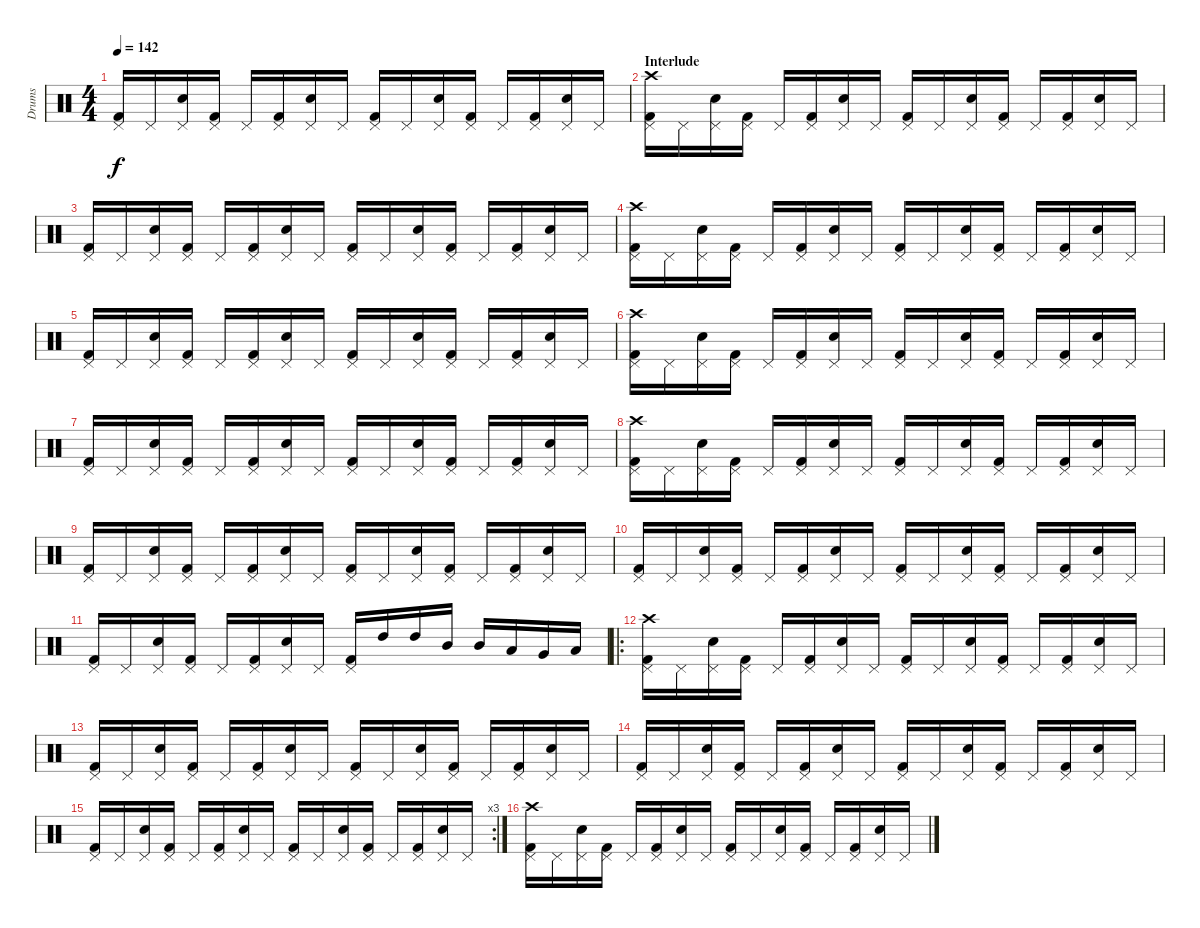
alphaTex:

\track ("Drums" "Drums") {instrument percussion}
\staff {score}
\articulation defaults
\ts (4 4)
\tempo 142
\clef neutral
\ks c
("Kick (hit) 2" "Pedal Hi-Hat (hit)").16{dy f} "Pedal Hi-Hat (hit)".16 ("Snare (hit) 2" "Pedal Hi-Hat (hit)").16 ("Kick (hit) 2" "Pedal Hi-Hat (hit)").16 "Pedal Hi-Hat (hit)".16 ("Kick (hit) 2" "Pedal Hi-Hat (hit)").16 ("Snare (hit) 2" "Pedal Hi-Hat (hit)").16 "Pedal Hi-Hat (hit)".16 ("Kick (hit) 2" "Pedal Hi-Hat (hit)").16 "Pedal Hi-Hat (hit)".16 ("Snare (hit) 2" "Pedal Hi-Hat (hit)").16 ("Kick (hit) 2" "Pedal Hi-Hat (hit)").16 "Pedal Hi-Hat (hit)".16 ("Kick (hit) 2" "Pedal Hi-Hat (hit)").16 ("Snare (hit) 2" "Pedal Hi-Hat (hit)").16 "Pedal Hi-Hat (hit)".16 |
\section ("" "Interlude")
("Kick (hit) 2" "Pedal Hi-Hat (hit)" "Crash high (hit)").16 "Pedal Hi-Hat (hit)".16 ("Snare (hit) 2" "Pedal Hi-Hat (hit)").16 ("Kick (hit) 2" "Pedal Hi-Hat (hit)").16 "Pedal Hi-Hat (hit)".16 ("Kick (hit) 2" "Pedal Hi-Hat (hit)").16 ("Snare (hit) 2" "Pedal Hi-Hat (hit)").16 "Pedal Hi-Hat (hit)".16 ("Kick (hit) 2" "Pedal Hi-Hat (hit)").16 "Pedal Hi-Hat (hit)".16 ("Snare (hit) 2" "Pedal Hi-Hat (hit)").16 ("Kick (hit) 2" "Pedal Hi-Hat (hit)").16 "Pedal Hi-Hat (hit)".16 ("Kick (hit) 2" "Pedal Hi-Hat (hit)").16 ("Snare (hit) 2" "Pedal Hi-Hat (hit)").16 "Pedal Hi-Hat (hit)".16 |
("Kick (hit) 2" "Pedal Hi-Hat (hit)").16 "Pedal Hi-Hat (hit)".16 ("Snare (hit) 2" "Pedal Hi-Hat (hit)").16 ("Kick (hit) 2" "Pedal Hi-Hat (hit)").16 "Pedal Hi-Hat (hit)".16 ("Kick (hit) 2" "Pedal Hi-Hat (hit)").16 ("Snare (hit) 2" "Pedal Hi-Hat (hit)").16 "Pedal Hi-Hat (hit)".16 ("Kick (hit) 2" "Pedal Hi-Hat (hit)").16 "Pedal Hi-Hat (hit)".16 ("Snare (hit) 2" "Pedal Hi-Hat (hit)").16 ("Kick (hit) 2" "Pedal Hi-Hat (hit)").16 "Pedal Hi-Hat (hit)".16 ("Kick (hit) 2" "Pedal Hi-Hat (hit)").16 ("Snare (hit) 2" "Pedal Hi-Hat (hit)").16 "Pedal Hi-Hat (hit)".16 |
("Kick (hit) 2" "Pedal Hi-Hat (hit)" "Crash high (hit)").16 "Pedal Hi-Hat (hit)".16 ("Snare (hit) 2" "Pedal Hi-Hat (hit)").16 ("Kick (hit) 2" "Pedal Hi-Hat (hit)").16 "Pedal Hi-Hat (hit)".16 ("Kick (hit) 2" "Pedal Hi-Hat (hit)").16 ("Snare (hit) 2" "Pedal Hi-Hat (hit)").16 "Pedal Hi-Hat (hit)".16 ("Kick (hit) 2" "Pedal Hi-Hat (hit)").16 "Pedal Hi-Hat (hit)".16 ("Snare (hit) 2" "Pedal Hi-Hat (hit)").16 ("Kick (hit) 2" "Pedal Hi-Hat (hit)").16 "Pedal Hi-Hat (hit)".16 ("Kick (hit) 2" "Pedal Hi-Hat (hit)").16 ("Snare (hit) 2" "Pedal Hi-Hat (hit)").16 "Pedal Hi-Hat (hit)".16 |
("Kick (hit) 2" "Pedal Hi-Hat (hit)").16 "Pedal Hi-Hat (hit)".16 ("Snare (hit) 2" "Pedal Hi-Hat (hit)").16 ("Kick (hit) 2" "Pedal Hi-Hat (hit)").16 "Pedal Hi-Hat (hit)".16 ("Kick (hit) 2" "Pedal Hi-Hat (hit)").16 ("Snare (hit) 2" "Pedal Hi-Hat (hit)").16 "Pedal Hi-Hat (hit)".16 ("Kick (hit) 2" "Pedal Hi-Hat (hit)").16 "Pedal Hi-Hat (hit)".16 ("Snare (hit) 2" "Pedal Hi-Hat (hit)").16 ("Kick (hit) 2" "Pedal Hi-Hat (hit)").16 "Pedal Hi-Hat (hit)".16 ("Kick (hit) 2" "Pedal Hi-Hat (hit)").16 ("Snare (hit) 2" "Pedal Hi-Hat (hit)").16 "Pedal Hi-Hat (hit)".16 |
("Kick (hit) 2" "Pedal Hi-Hat (hit)" "Crash high (hit)").16 "Pedal Hi-Hat (hit)".16 ("Snare (hit) 2" "Pedal Hi-Hat (hit)").16 ("Kick (hit) 2" "Pedal Hi-Hat (hit)").16 "Pedal Hi-Hat (hit)".16 ("Kick (hit) 2" "Pedal Hi-Hat (hit)").16 ("Snare (hit) 2" "Pedal Hi-Hat (hit)").16 "Pedal Hi-Hat (hit)".16 ("Kick (hit) 2" "Pedal Hi-Hat (hit)").16 "Pedal Hi-Hat (hit)".16 ("Snare (hit) 2" "Pedal Hi-Hat (hit)").16 ("Kick (hit) 2" "Pedal Hi-Hat (hit)").16 "Pedal Hi-Hat (hit)".16 ("Kick (hit) 2" "Pedal Hi-Hat (hit)").16 ("Snare (hit) 2" "Pedal Hi-Hat (hit)").16 "Pedal Hi-Hat (hit)".16 |
("Kick (hit) 2" "Pedal Hi-Hat (hit)").16 "Pedal Hi-Hat (hit)".16 ("Snare (hit) 2" "Pedal Hi-Hat (hit)").16 ("Kick (hit) 2" "Pedal Hi-Hat (hit)").16 "Pedal Hi-Hat (hit)".16 ("Kick (hit) 2" "Pedal Hi-Hat (hit)").16 ("Snare (hit) 2" "Pedal Hi-Hat (hit)").16 "Pedal Hi-Hat (hit)".16 ("Kick (hit) 2" "Pedal Hi-Hat (hit)").16 "Pedal Hi-Hat (hit)".16 ("Snare (hit) 2" "Pedal Hi-Hat (hit)").16 ("Kick (hit) 2" "Pedal Hi-Hat (hit)").16 "Pedal Hi-Hat (hit)".16 ("Kick (hit) 2" "Pedal Hi-Hat (hit)").16 ("Snare (hit) 2" "Pedal Hi-Hat (hit)").16 "Pedal Hi-Hat (hit)".16 |
("Kick (hit) 2" "Pedal Hi-Hat (hit)" "Crash high (hit)").16 "Pedal Hi-Hat (hit)".16 ("Snare (hit) 2" "Pedal Hi-Hat (hit)").16 ("Kick (hit) 2" "Pedal Hi-Hat (hit)").16 "Pedal Hi-Hat (hit)".16 ("Kick (hit) 2" "Pedal Hi-Hat (hit)").16 ("Snare (hit) 2" "Pedal Hi-Hat (hit)").16 "Pedal Hi-Hat (hit)".16 ("Kick (hit) 2" "Pedal Hi-Hat (hit)").16 "Pedal Hi-Hat (hit)".16 ("Snare (hit) 2" "Pedal Hi-Hat (hit)").16 ("Kick (hit) 2" "Pedal Hi-Hat (hit)").16 "Pedal Hi-Hat (hit)".16 ("Kick (hit) 2" "Pedal Hi-Hat (hit)").16 ("Snare (hit) 2" "Pedal Hi-Hat (hit)").16 "Pedal Hi-Hat (hit)".16 |
("Kick (hit) 2" "Pedal Hi-Hat (hit)").16 "Pedal Hi-Hat (hit)".16 ("Snare (hit) 2" "Pedal Hi-Hat (hit)").16 ("Kick (hit) 2" "Pedal Hi-Hat (hit)").16 "Pedal Hi-Hat (hit)".16 ("Kick (hit) 2" "Pedal Hi-Hat (hit)").16 ("Snare (hit) 2" "Pedal Hi-Hat (hit)").16 "Pedal Hi-Hat (hit)".16 ("Kick (hit) 2" "Pedal Hi-Hat (hit)").16 "Pedal Hi-Hat (hit)".16 ("Snare (hit) 2" "Pedal Hi-Hat (hit)").16 ("Kick (hit) 2" "Pedal Hi-Hat (hit)").16 "Pedal Hi-Hat (hit)".16 ("Kick (hit) 2" "Pedal Hi-Hat (hit)").16 ("Snare (hit) 2" "Pedal Hi-Hat (hit)").16 "Pedal Hi-Hat (hit)".16 |
("Kick (hit) 2" "Pedal Hi-Hat (hit)").16 "Pedal Hi-Hat (hit)".16 ("Snare (hit) 2" "Pedal Hi-Hat (hit)").16 ("Kick (hit) 2" "Pedal Hi-Hat (hit)").16 "Pedal Hi-Hat (hit)".16 ("Kick (hit) 2" "Pedal Hi-Hat (hit)").16 ("Snare (hit) 2" "Pedal Hi-Hat (hit)").16 "Pedal Hi-Hat (hit)".16 ("Kick (hit) 2" "Pedal Hi-Hat (hit)").16 "Pedal Hi-Hat (hit)".16 ("Snare (hit) 2" "Pedal Hi-Hat (hit)").16 ("Kick (hit) 2" "Pedal Hi-Hat (hit)").16 "Pedal Hi-Hat (hit)".16 ("Kick (hit) 2" "Pedal Hi-Hat (hit)").16 ("Snare (hit) 2" "Pedal Hi-Hat (hit)").16 "Pedal Hi-Hat (hit)".16 |
("Kick (hit) 2" "Pedal Hi-Hat (hit)").16 "Pedal Hi-Hat (hit)".16 ("Snare (hit) 2" "Pedal Hi-Hat (hit)").16 ("Kick (hit) 2" "Pedal Hi-Hat (hit)").16 "Pedal Hi-Hat (hit)".16 ("Kick (hit) 2" "Pedal Hi-Hat (hit)").16 ("Snare (hit) 2" "Pedal Hi-Hat (hit)").16 "Pedal Hi-Hat (hit)".16 ("Kick (hit) 2" "Pedal Hi-Hat (hit)").16 "High Tom (hit)".16 "High Tom (hit)".16 "Mid Tom (hit)".16 "Mid Tom (hit)".16 "Low Tom (hit)".16 "Very Low Tom (hit)".16 "Low Floor Tom (hit)".16 |
\ro
("Kick (hit) 2" "Pedal Hi-Hat (hit)" "Crash high (hit)").16 "Pedal Hi-Hat (hit)".16 ("Snare (hit) 2" "Pedal Hi-Hat (hit)").16 ("Kick (hit) 2" "Pedal Hi-Hat (hit)").16 "Pedal Hi-Hat (hit)".16 ("Kick (hit) 2" "Pedal Hi-Hat (hit)").16 ("Snare (hit) 2" "Pedal Hi-Hat (hit)").16 "Pedal Hi-Hat (hit)".16 ("Kick (hit) 2" "Pedal Hi-Hat (hit)").16 "Pedal Hi-Hat (hit)".16 ("Snare (hit) 2" "Pedal Hi-Hat (hit)").16 ("Kick (hit) 2" "Pedal Hi-Hat (hit)").16 "Pedal Hi-Hat (hit)".16 ("Kick (hit) 2" "Pedal Hi-Hat (hit)").16 ("Snare (hit) 2" "Pedal Hi-Hat (hit)").16 "Pedal Hi-Hat (hit)".16 |
("Kick (hit) 2" "Pedal Hi-Hat (hit)").16 "Pedal Hi-Hat (hit)".16 ("Snare (hit) 2" "Pedal Hi-Hat (hit)").16 ("Kick (hit) 2" "Pedal Hi-Hat (hit)").16 "Pedal Hi-Hat (hit)".16 ("Kick (hit) 2" "Pedal Hi-Hat (hit)").16 ("Snare (hit) 2" "Pedal Hi-Hat (hit)").16 "Pedal Hi-Hat (hit)".16 ("Kick (hit) 2" "Pedal Hi-Hat (hit)").16 "Pedal Hi-Hat (hit)".16 ("Snare (hit) 2" "Pedal Hi-Hat (hit)").16 ("Kick (hit) 2" "Pedal Hi-Hat (hit)").16 "Pedal Hi-Hat (hit)".16 ("Kick (hit) 2" "Pedal Hi-Hat (hit)").16 ("Snare (hit) 2" "Pedal Hi-Hat (hit)").16 "Pedal Hi-Hat (hit)".16 |
("Kick (hit) 2" "Pedal Hi-Hat (hit)").16 "Pedal Hi-Hat (hit)".16 ("Snare (hit) 2" "Pedal Hi-Hat (hit)").16 ("Kick (hit) 2" "Pedal Hi-Hat (hit)").16 "Pedal Hi-Hat (hit)".16 ("Kick (hit) 2" "Pedal Hi-Hat (hit)").16 ("Snare (hit) 2" "Pedal Hi-Hat (hit)").16 "Pedal Hi-Hat (hit)".16 ("Kick (hit) 2" "Pedal Hi-Hat (hit)").16 "Pedal Hi-Hat (hit)".16 ("Snare (hit) 2" "Pedal Hi-Hat (hit)").16 ("Kick (hit) 2" "Pedal Hi-Hat (hit)").16 "Pedal Hi-Hat (hit)".16 ("Kick (hit) 2" "Pedal Hi-Hat (hit)").16 ("Snare (hit) 2" "Pedal Hi-Hat (hit)").16 "Pedal Hi-Hat (hit)".16 |
\rc 3
("Kick (hit) 2" "Pedal Hi-Hat (hit)").16 "Pedal Hi-Hat (hit)".16 ("Snare (hit) 2" "Pedal Hi-Hat (hit)").16 ("Kick (hit) 2" "Pedal Hi-Hat (hit)").16 "Pedal Hi-Hat (hit)".16 ("Kick (hit) 2" "Pedal Hi-Hat (hit)").16 ("Snare (hit) 2" "Pedal Hi-Hat (hit)").16 "Pedal Hi-Hat (hit)".16 ("Kick (hit) 2" "Pedal Hi-Hat (hit)").16 "Pedal Hi-Hat (hit)".16 ("Snare (hit) 2" "Pedal Hi-Hat (hit)").16 ("Kick (hit) 2" "Pedal Hi-Hat (hit)").16 "Pedal Hi-Hat (hit)".16 ("Kick (hit) 2" "Pedal Hi-Hat (hit)").16 ("Snare (hit) 2" "Pedal Hi-Hat (hit)").16 "Pedal Hi-Hat (hit)".16 |
("Kick (hit) 2" "Pedal Hi-Hat (hit)" "Crash high (hit)").16 "Pedal Hi-Hat (hit)".16 ("Snare (hit) 2" "Pedal Hi-Hat (hit)").16 ("Kick (hit) 2" "Pedal Hi-Hat (hit)").16 "Pedal Hi-Hat (hit)".16 ("Kick (hit) 2" "Pedal Hi-Hat (hit)").16 ("Snare (hit) 2" "Pedal Hi-Hat (hit)").16 "Pedal Hi-Hat (hit)".16 ("Kick (hit) 2" "Pedal Hi-Hat (hit)").16 "Pedal Hi-Hat (hit)".16 ("Snare (hit) 2" "Pedal Hi-Hat (hit)").16 ("Kick (hit) 2" "Pedal Hi-Hat (hit)").16 "Pedal Hi-Hat (hit)".16 ("Kick (hit) 2" "Pedal Hi-Hat (hit)").16 ("Snare (hit) 2" "Pedal Hi-Hat (hit)").16 "Pedal Hi-Hat (hit)".16
